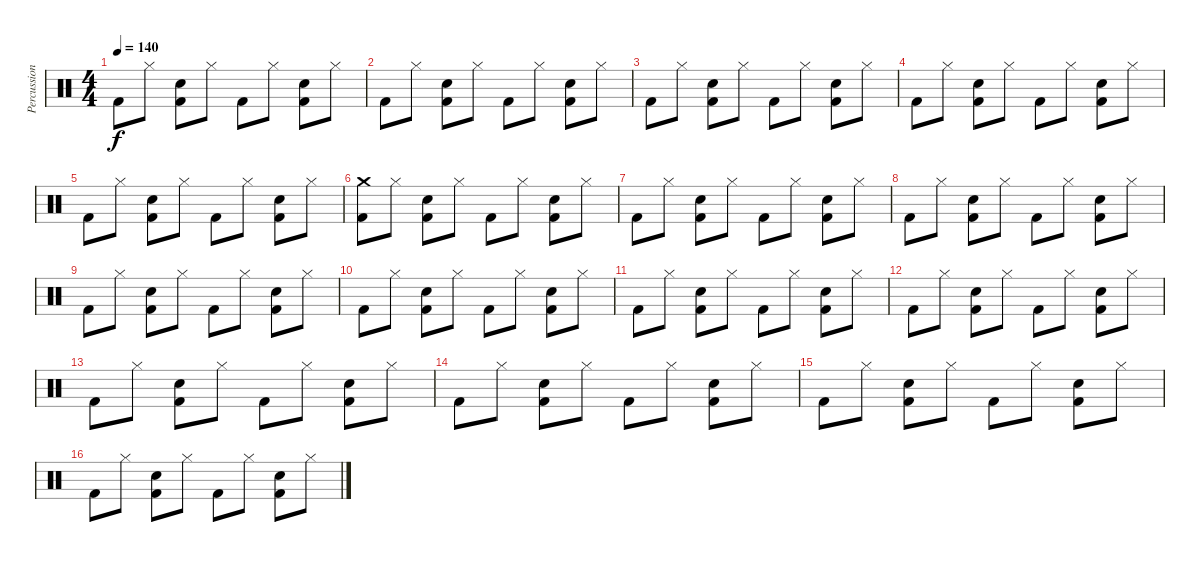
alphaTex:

\track ("Percussion" "Percussion") {instrument percussion}
\staff {score}
\articulation defaults
\ts (4 4)
\tempo 140
\clef neutral
\ks c "Kick (hit) 2".8{dy f} "Hi-Hat (closed)".8
("Electric Snare (hit)" "Kick (hit) 2").8 "Hi-Hat (closed)".8 "Kick (hit) 2".8 "Hi-Hat (closed)".8 ("Electric Snare (hit)" "Kick (hit) 2").8 "Hi-Hat (closed)".8 |
"Kick (hit) 2".8 "Hi-Hat (closed)".8 ("Electric Snare (hit)" "Kick (hit) 2").8 "Hi-Hat (closed)".8 "Kick (hit) 2".8 "Hi-Hat (closed)".8 ("Electric Snare (hit)" "Kick (hit) 2").8 "Hi-Hat (closed)".8 |
"Kick (hit) 2".8 "Hi-Hat (closed)".8 ("Electric Snare (hit)" "Kick (hit) 2").8 "Hi-Hat (closed)".8 "Kick (hit) 2".8 "Hi-Hat (closed)".8 ("Electric Snare (hit)" "Kick (hit) 2").8 "Hi-Hat (closed)".8 |
"Kick (hit) 2".8 "Hi-Hat (closed)".8 ("Electric Snare (hit)" "Kick (hit) 2").8 "Hi-Hat (closed)".8 "Kick (hit) 2".8 "Hi-Hat (closed)".8 ("Electric Snare (hit)" "Kick (hit) 2").8 "Hi-Hat (closed)".8 |
"Kick (hit) 2".8 "Hi-Hat (closed)".8 ("Electric Snare (hit)" "Kick (hit) 2").8 "Hi-Hat (closed)".8 "Kick (hit) 2".8 "Hi-Hat (closed)".8 ("Electric Snare (hit)" "Kick (hit) 2").8 "Hi-Hat (closed)".8 |
("Crash medium (hit)" "Kick (hit) 2").8 "Hi-Hat (closed)".8 ("Electric Snare (hit)" "Kick (hit) 2").8 "Hi-Hat (closed)".8 "Kick (hit) 2".8 "Hi-Hat (closed)".8 ("Electric Snare (hit)" "Kick (hit) 2").8 "Hi-Hat (closed)".8 |
"Kick (hit) 2".8 "Hi-Hat (closed)".8 ("Electric Snare (hit)" "Kick (hit) 2").8 "Hi-Hat (closed)".8 "Kick (hit) 2".8 "Hi-Hat (closed)".8 ("Electric Snare (hit)" "Kick (hit) 2").8 "Hi-Hat (closed)".8 |
"Kick (hit) 2".8 "Hi-Hat (closed)".8 ("Electric Snare (hit)" "Kick (hit) 2").8 "Hi-Hat (closed)".8 "Kick (hit) 2".8 "Hi-Hat (closed)".8 ("Electric Snare (hit)" "Kick (hit) 2").8 "Hi-Hat (closed)".8 |
"Kick (hit) 2".8 "Hi-Hat (closed)".8 ("Electric Snare (hit)" "Kick (hit) 2").8 "Hi-Hat (closed)".8 "Kick (hit) 2".8 "Hi-Hat (closed)".8 ("Electric Snare (hit)" "Kick (hit) 2").8 "Hi-Hat (closed)".8 |
"Kick (hit) 2".8 "Hi-Hat (closed)".8 ("Electric Snare (hit)" "Kick (hit) 2").8 "Hi-Hat (closed)".8 "Kick (hit) 2".8 "Hi-Hat (closed)".8 ("Electric Snare (hit)" "Kick (hit) 2").8 "Hi-Hat (closed)".8 |
"Kick (hit) 2".8 "Hi-Hat (closed)".8 ("Electric Snare (hit)" "Kick (hit) 2").8 "Hi-Hat (closed)".8 "Kick (hit) 2".8 "Hi-Hat (closed)".8 ("Electric Snare (hit)" "Kick (hit) 2").8 "Hi-Hat (closed)".8 |
"Kick (hit) 2".8 "Hi-Hat (closed)".8 ("Electric Snare (hit)" "Kick (hit) 2").8 "Hi-Hat (closed)".8 "Kick (hit) 2".8 "Hi-Hat (closed)".8 ("Electric Snare (hit)" "Kick (hit) 2").8 "Hi-Hat (closed)".8 |
"Kick (hit) 2".8 "Hi-Hat (closed)".8 ("Electric Snare (hit)" "Kick (hit) 2").8 "Hi-Hat (closed)".8 "Kick (hit) 2".8 "Hi-Hat (closed)".8 ("Electric Snare (hit)" "Kick (hit) 2").8 "Hi-Hat (closed)".8 |
"Kick (hit) 2".8 "Hi-Hat (closed)".8 ("Electric Snare (hit)" "Kick (hit) 2").8 "Hi-Hat (closed)".8 "Kick (hit) 2".8 "Hi-Hat (closed)".8 ("Electric Snare (hit)" "Kick (hit) 2").8 "Hi-Hat (closed)".8 |
"Kick (hit) 2".8 "Hi-Hat (closed)".8 ("Electric Snare (hit)" "Kick (hit) 2").8 "Hi-Hat (closed)".8 "Kick (hit) 2".8 "Hi-Hat (closed)".8 ("Electric Snare (hit)" "Kick (hit) 2").8 "Hi-Hat (closed)".8 |
"Kick (hit) 2".8 "Hi-Hat (closed)".8 ("Electric Snare (hit)" "Kick (hit) 2").8 "Hi-Hat (closed)".8 "Kick (hit) 2".8 "Hi-Hat (closed)".8 ("Electric Snare (hit)" "Kick (hit) 2").8 "Hi-Hat (closed)".8
